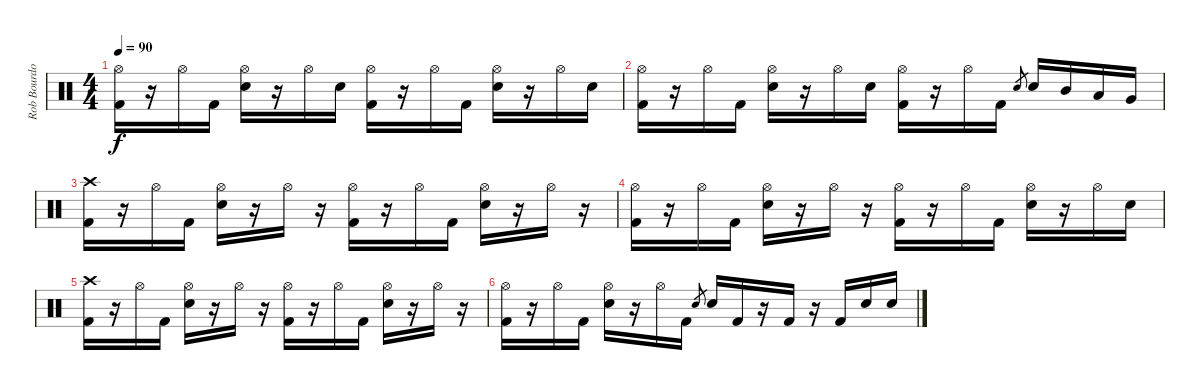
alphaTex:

\track ("Rob Bourdon - Drums" "Rob Bourdo") {instrument percussion}
\staff {score}
\articulation defaults
\ts (4 4)
\tempo 90
\clef neutral
\ks c
("Hi-Hat (open)" "Kick (hit) 2").16{dy f} r.16 "Hi-Hat (open)".16 "Kick (hit) 2".16 ("Hi-Hat (open)" "Electric Snare (hit)").16 r.16 "Hi-Hat (open)".16 "Electric Snare (hit)".16 ("Hi-Hat (open)" "Kick (hit) 2").16 r.16 "Hi-Hat (open)".16 "Kick (hit) 2".16 ("Hi-Hat (open)" "Electric Snare (hit)").16 r.16 "Hi-Hat (open)".16 "Electric Snare (hit)".16 |
("Hi-Hat (open)" "Kick (hit) 2").16 r.16 "Hi-Hat (open)".16 "Kick (hit) 2".16 ("Hi-Hat (open)" "Electric Snare (hit)").16 r.16 "Hi-Hat (open)".16 "Electric Snare (hit)".16 ("Hi-Hat (open)" "Kick (hit) 2").16 r.16 "Hi-Hat (open)".16 "Kick (hit) 2".16 "Electric Snare (hit)".8{gr} "Electric Snare (hit)".16 "Mid Tom (hit)".16 "Low Tom (hit)".16 "Very Low Tom (hit)".16 |
("Crash high (hit)" "Kick (hit) 2").16 r.16 "Hi-Hat (open)".16 "Kick (hit) 2".16 ("Hi-Hat (open)" "Electric Snare (hit)").16 r.16 "Hi-Hat (open)".16 r.16 ("Hi-Hat (open)" "Kick (hit) 2").16 r.16 "Hi-Hat (open)".16 "Kick (hit) 2".16 ("Hi-Hat (open)" "Electric Snare (hit)").16 r.16 "Hi-Hat (open)".16 r.16 |
("Hi-Hat (open)" "Kick (hit) 2").16 r.16 "Hi-Hat (open)".16 "Kick (hit) 2".16 ("Hi-Hat (open)" "Electric Snare (hit)").16 r.16 "Hi-Hat (open)".16 r.16 ("Hi-Hat (open)" "Kick (hit) 2").16 r.16 "Hi-Hat (open)".16 "Kick (hit) 2".16 ("Hi-Hat (open)" "Electric Snare (hit)").16 r.16 "Hi-Hat (open)".16 "Electric Snare (hit)".16 |
("Crash high (hit)" "Kick (hit) 2").16 r.16 "Hi-Hat (open)".16 "Kick (hit) 2".16 ("Hi-Hat (open)" "Electric Snare (hit)").16 r.16 "Hi-Hat (open)".16 r.16 ("Hi-Hat (open)" "Kick (hit) 2").16 r.16 "Hi-Hat (open)".16 "Kick (hit) 2".16 ("Hi-Hat (open)" "Electric Snare (hit)").16 r.16 "Hi-Hat (open)".16 r.16 |
("Hi-Hat (open)" "Kick (hit) 2").16 r.16 "Hi-Hat (open)".16 "Kick (hit) 2".16 ("Hi-Hat (open)" "Electric Snare (hit)").16 r.16 "Hi-Hat (open)".16 "Kick (hit) 2".16 "Electric Snare (hit)".8{gr} "Electric Snare (hit)".16 "Kick (hit) 2".16 r.16 "Kick (hit) 2".16 r.16 "Kick (hit) 2".16 "Electric Snare (hit)".16 "Electric Snare (hit)".16
